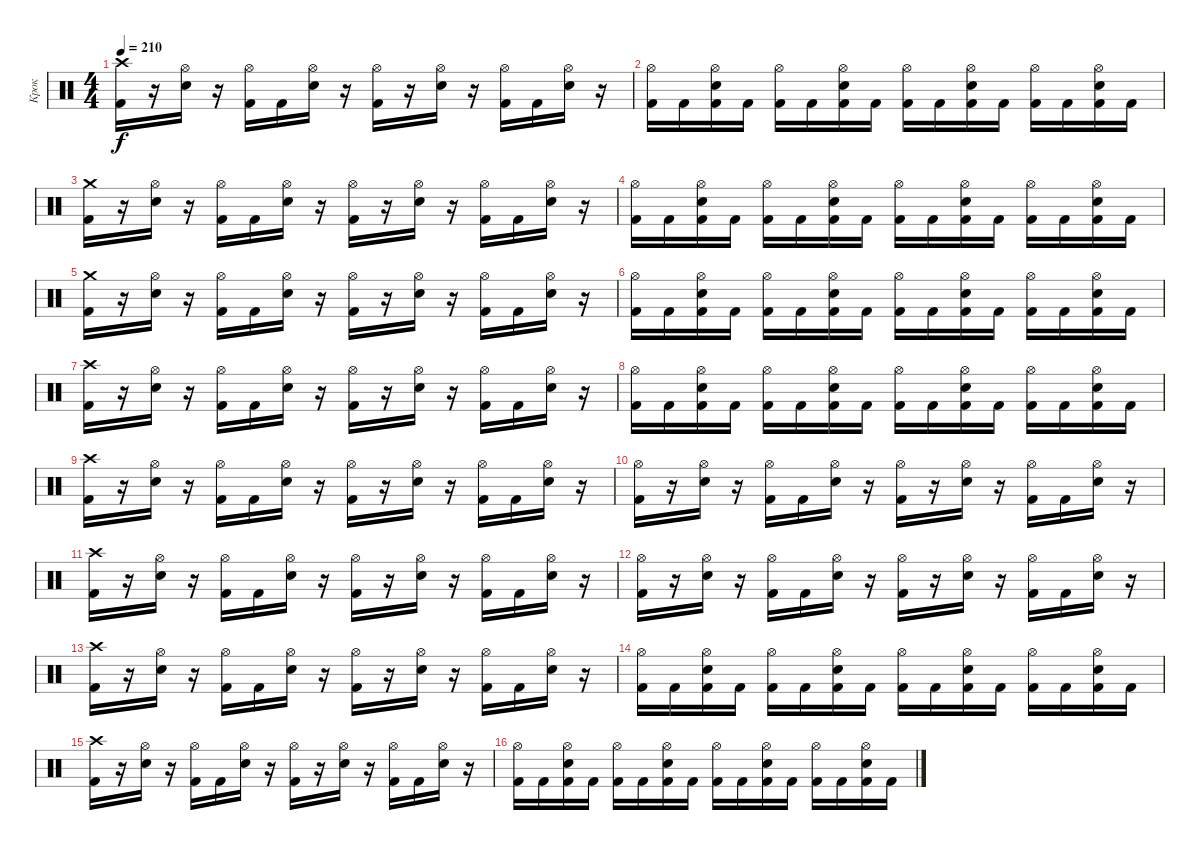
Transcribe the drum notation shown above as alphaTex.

\track ("Крок" "Крок") {instrument percussion}
\staff {score}
\articulation defaults
\ts (4 4)
\tempo 210
\clef neutral
\ks c
("Crash high (hit)" "Kick (hit) 2").16{dy f} r.16 ("Hi-Hat (open)" "Electric Snare (hit)").16 r.16 ("Hi-Hat (open)" "Kick (hit) 2").16 "Kick (hit) 2".16 ("Hi-Hat (open)" "Electric Snare (hit)").16 r.16 ("Hi-Hat (open)" "Kick (hit) 2").16 r.16 ("Hi-Hat (open)" "Electric Snare (hit)").16 r.16 ("Hi-Hat (open)" "Kick (hit) 2").16 "Kick (hit) 2".16 ("Hi-Hat (open)" "Electric Snare (hit)").16 r.16 |
("Hi-Hat (open)" "Kick (hit) 2").16 "Kick (hit) 2".16 ("Hi-Hat (open)" "Electric Snare (hit)" "Kick (hit) 2").16 "Kick (hit) 2".16 ("Hi-Hat (open)" "Kick (hit) 2").16 "Kick (hit) 2".16 ("Hi-Hat (open)" "Electric Snare (hit)" "Kick (hit) 2").16 "Kick (hit) 2".16 ("Hi-Hat (open)" "Kick (hit) 2").16 "Kick (hit) 2".16 ("Hi-Hat (open)" "Electric Snare (hit)" "Kick (hit) 2").16 "Kick (hit) 2".16 ("Hi-Hat (open)" "Kick (hit) 2").16 "Kick (hit) 2".16 ("Hi-Hat (open)" "Electric Snare (hit)" "Kick (hit) 2").16 "Kick (hit) 2".16 |
("Crash medium (hit)" "Kick (hit) 2").16 r.16 ("Hi-Hat (open)" "Electric Snare (hit)").16 r.16 ("Hi-Hat (open)" "Kick (hit) 2").16 "Kick (hit) 2".16 ("Hi-Hat (open)" "Electric Snare (hit)").16 r.16 ("Hi-Hat (open)" "Kick (hit) 2").16 r.16 ("Hi-Hat (open)" "Electric Snare (hit)").16 r.16 ("Hi-Hat (open)" "Kick (hit) 2").16 "Kick (hit) 2".16 ("Hi-Hat (open)" "Electric Snare (hit)").16 r.16 |
("Hi-Hat (open)" "Kick (hit) 2").16 "Kick (hit) 2".16 ("Hi-Hat (open)" "Electric Snare (hit)" "Kick (hit) 2").16 "Kick (hit) 2".16 ("Hi-Hat (open)" "Kick (hit) 2").16 "Kick (hit) 2".16 ("Hi-Hat (open)" "Electric Snare (hit)" "Kick (hit) 2").16 "Kick (hit) 2".16 ("Hi-Hat (open)" "Kick (hit) 2").16 "Kick (hit) 2".16 ("Hi-Hat (open)" "Electric Snare (hit)" "Kick (hit) 2").16 "Kick (hit) 2".16 ("Hi-Hat (open)" "Kick (hit) 2").16 "Kick (hit) 2".16 ("Hi-Hat (open)" "Electric Snare (hit)" "Kick (hit) 2").16 "Kick (hit) 2".16 |
("Crash medium (hit)" "Kick (hit) 2").16 r.16 ("Hi-Hat (open)" "Electric Snare (hit)").16 r.16 ("Hi-Hat (open)" "Kick (hit) 2").16 "Kick (hit) 2".16 ("Hi-Hat (open)" "Electric Snare (hit)").16 r.16 ("Hi-Hat (open)" "Kick (hit) 2").16 r.16 ("Hi-Hat (open)" "Electric Snare (hit)").16 r.16 ("Hi-Hat (open)" "Kick (hit) 2").16 "Kick (hit) 2".16 ("Hi-Hat (open)" "Electric Snare (hit)").16 r.16 |
("Hi-Hat (open)" "Kick (hit) 2").16 "Kick (hit) 2".16 ("Hi-Hat (open)" "Electric Snare (hit)" "Kick (hit) 2").16 "Kick (hit) 2".16 ("Hi-Hat (open)" "Kick (hit) 2").16 "Kick (hit) 2".16 ("Hi-Hat (open)" "Electric Snare (hit)" "Kick (hit) 2").16 "Kick (hit) 2".16 ("Hi-Hat (open)" "Kick (hit) 2").16 "Kick (hit) 2".16 ("Hi-Hat (open)" "Electric Snare (hit)" "Kick (hit) 2").16 "Kick (hit) 2".16 ("Hi-Hat (open)" "Kick (hit) 2").16 "Kick (hit) 2".16 ("Hi-Hat (open)" "Electric Snare (hit)" "Kick (hit) 2").16 "Kick (hit) 2".16 |
("Crash high (hit)" "Kick (hit) 2").16 r.16 ("Hi-Hat (open)" "Electric Snare (hit)").16 r.16 ("Hi-Hat (open)" "Kick (hit) 2").16 "Kick (hit) 2".16 ("Hi-Hat (open)" "Electric Snare (hit)").16 r.16 ("Hi-Hat (open)" "Kick (hit) 2").16 r.16 ("Hi-Hat (open)" "Electric Snare (hit)").16 r.16 ("Hi-Hat (open)" "Kick (hit) 2").16 "Kick (hit) 2".16 ("Hi-Hat (open)" "Electric Snare (hit)").16 r.16 |
("Hi-Hat (open)" "Kick (hit) 2").16 "Kick (hit) 2".16 ("Hi-Hat (open)" "Electric Snare (hit)" "Kick (hit) 2").16 "Kick (hit) 2".16 ("Hi-Hat (open)" "Kick (hit) 2").16 "Kick (hit) 2".16 ("Hi-Hat (open)" "Electric Snare (hit)" "Kick (hit) 2").16 "Kick (hit) 2".16 ("Hi-Hat (open)" "Kick (hit) 2").16 "Kick (hit) 2".16 ("Hi-Hat (open)" "Electric Snare (hit)" "Kick (hit) 2").16 "Kick (hit) 2".16 ("Hi-Hat (open)" "Kick (hit) 2").16 "Kick (hit) 2".16 ("Hi-Hat (open)" "Electric Snare (hit)" "Kick (hit) 2").16 "Kick (hit) 2".16 |
("Crash high (hit)" "Kick (hit) 2").16 r.16 ("Hi-Hat (open)" "Electric Snare (hit)").16 r.16 ("Hi-Hat (open)" "Kick (hit) 2").16 "Kick (hit) 2".16 ("Hi-Hat (open)" "Electric Snare (hit)").16 r.16 ("Hi-Hat (open)" "Kick (hit) 2").16 r.16 ("Hi-Hat (open)" "Electric Snare (hit)").16 r.16 ("Hi-Hat (open)" "Kick (hit) 2").16 "Kick (hit) 2".16 ("Hi-Hat (open)" "Electric Snare (hit)").16 r.16 |
("Hi-Hat (open)" "Kick (hit) 2").16 r.16 ("Hi-Hat (open)" "Electric Snare (hit)").16 r.16 ("Hi-Hat (open)" "Kick (hit) 2").16 "Kick (hit) 2".16 ("Hi-Hat (open)" "Electric Snare (hit)").16 r.16 ("Hi-Hat (open)" "Kick (hit) 2").16 r.16 ("Hi-Hat (open)" "Electric Snare (hit)").16 r.16 ("Hi-Hat (open)" "Kick (hit) 2").16 "Kick (hit) 2".16 ("Hi-Hat (open)" "Electric Snare (hit)").16 r.16 |
("Crash high (hit)" "Kick (hit) 2").16 r.16 ("Hi-Hat (open)" "Electric Snare (hit)").16 r.16 ("Hi-Hat (open)" "Kick (hit) 2").16 "Kick (hit) 2".16 ("Hi-Hat (open)" "Electric Snare (hit)").16 r.16 ("Hi-Hat (open)" "Kick (hit) 2").16 r.16 ("Hi-Hat (open)" "Electric Snare (hit)").16 r.16 ("Hi-Hat (open)" "Kick (hit) 2").16 "Kick (hit) 2".16 ("Hi-Hat (open)" "Electric Snare (hit)").16 r.16 |
("Hi-Hat (open)" "Kick (hit) 2").16 r.16 ("Hi-Hat (open)" "Electric Snare (hit)").16 r.16 ("Hi-Hat (open)" "Kick (hit) 2").16 "Kick (hit) 2".16 ("Hi-Hat (open)" "Electric Snare (hit)").16 r.16 ("Hi-Hat (open)" "Kick (hit) 2").16 r.16 ("Hi-Hat (open)" "Electric Snare (hit)").16 r.16 ("Hi-Hat (open)" "Kick (hit) 2").16 "Kick (hit) 2".16 ("Hi-Hat (open)" "Electric Snare (hit)").16 r.16 |
("Crash high (hit)" "Kick (hit) 2").16 r.16 ("Hi-Hat (open)" "Electric Snare (hit)").16 r.16 ("Hi-Hat (open)" "Kick (hit) 2").16 "Kick (hit) 2".16 ("Hi-Hat (open)" "Electric Snare (hit)").16 r.16 ("Hi-Hat (open)" "Kick (hit) 2").16 r.16 ("Hi-Hat (open)" "Electric Snare (hit)").16 r.16 ("Hi-Hat (open)" "Kick (hit) 2").16 "Kick (hit) 2".16 ("Hi-Hat (open)" "Electric Snare (hit)").16 r.16 |
("Hi-Hat (open)" "Kick (hit) 2").16 "Kick (hit) 2".16 ("Hi-Hat (open)" "Electric Snare (hit)" "Kick (hit) 2").16 "Kick (hit) 2".16 ("Hi-Hat (open)" "Kick (hit) 2").16 "Kick (hit) 2".16 ("Hi-Hat (open)" "Electric Snare (hit)" "Kick (hit) 2").16 "Kick (hit) 2".16 ("Hi-Hat (open)" "Kick (hit) 2").16 "Kick (hit) 2".16 ("Hi-Hat (open)" "Electric Snare (hit)" "Kick (hit) 2").16 "Kick (hit) 2".16 ("Hi-Hat (open)" "Kick (hit) 2").16 "Kick (hit) 2".16 ("Hi-Hat (open)" "Electric Snare (hit)" "Kick (hit) 2").16 "Kick (hit) 2".16 |
("Crash high (hit)" "Kick (hit) 2").16 r.16 ("Hi-Hat (open)" "Electric Snare (hit)").16 r.16 ("Hi-Hat (open)" "Kick (hit) 2").16 "Kick (hit) 2".16 ("Hi-Hat (open)" "Electric Snare (hit)").16 r.16 ("Hi-Hat (open)" "Kick (hit) 2").16 r.16 ("Hi-Hat (open)" "Electric Snare (hit)").16 r.16 ("Hi-Hat (open)" "Kick (hit) 2").16 "Kick (hit) 2".16 ("Hi-Hat (open)" "Electric Snare (hit)").16 r.16 |
("Hi-Hat (open)" "Kick (hit) 2").16 "Kick (hit) 2".16 ("Hi-Hat (open)" "Electric Snare (hit)" "Kick (hit) 2").16 "Kick (hit) 2".16 ("Hi-Hat (open)" "Kick (hit) 2").16 "Kick (hit) 2".16 ("Hi-Hat (open)" "Electric Snare (hit)" "Kick (hit) 2").16 "Kick (hit) 2".16 ("Hi-Hat (open)" "Kick (hit) 2").16 "Kick (hit) 2".16 ("Hi-Hat (open)" "Electric Snare (hit)" "Kick (hit) 2").16 "Kick (hit) 2".16 ("Hi-Hat (open)" "Kick (hit) 2").16 "Kick (hit) 2".16 ("Hi-Hat (open)" "Electric Snare (hit)" "Kick (hit) 2").16 "Kick (hit) 2".16
